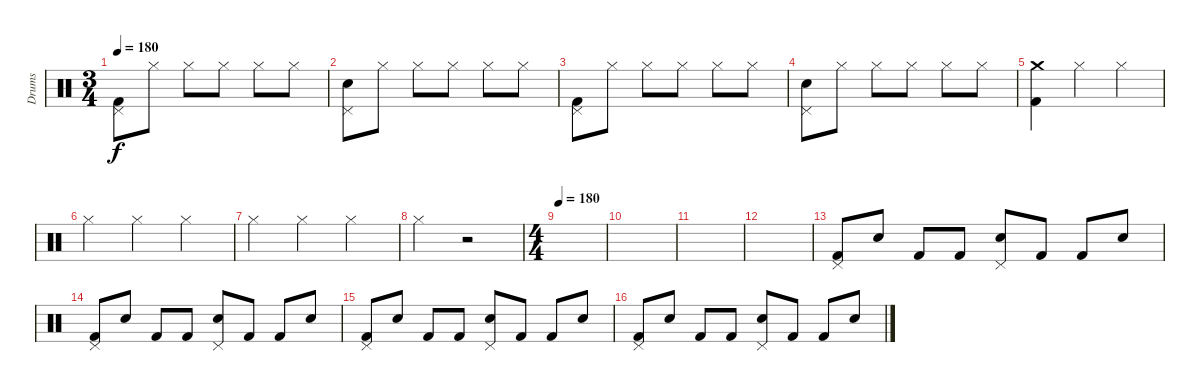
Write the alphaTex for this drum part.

\track ("Drums" "Drums") {instrument percussion}
\staff {score}
\articulation defaults
\ts (3 4)
\tempo 180
\clef neutral
\ks c
("Pedal Hi-Hat (hit)" "Kick (hit) 2").8{dy f} "Hi-Hat (closed)".8 "Hi-Hat (closed)".8 "Hi-Hat (closed)".8 "Hi-Hat (closed)".8 "Hi-Hat (closed)".8 |
("Electric Snare (hit)" "Pedal Hi-Hat (hit)").8 "Hi-Hat (closed)".8 "Hi-Hat (closed)".8 "Hi-Hat (closed)".8 "Hi-Hat (closed)".8 "Hi-Hat (closed)".8 |
("Pedal Hi-Hat (hit)" "Kick (hit) 2").8 "Hi-Hat (closed)".8 "Hi-Hat (closed)".8 "Hi-Hat (closed)".8 "Hi-Hat (closed)".8 "Hi-Hat (closed)".8 |
("Electric Snare (hit)" "Pedal Hi-Hat (hit)").8 "Hi-Hat (closed)".8 "Hi-Hat (closed)".8 "Hi-Hat (closed)".8 "Hi-Hat (closed)".8 "Hi-Hat (closed)".8 |
("Crash medium (hit)" "Kick (hit) 2").4 "Hi-Hat (closed)".4 "Hi-Hat (closed)".4 |
"Hi-Hat (closed)".4 "Hi-Hat (closed)".4 "Hi-Hat (closed)".4 |
"Hi-Hat (closed)".4 "Hi-Hat (closed)".4 "Hi-Hat (closed)".4 |
"Hi-Hat (closed)".4 r.2 |
\ts (4 4)
\tempo 180
|
|
|
|
("Pedal Hi-Hat (hit)" "Kick (hit) 2").8 "Electric Snare (hit)".8 "Kick (hit) 2".8 "Kick (hit) 2".8 ("Electric Snare (hit)" "Pedal Hi-Hat (hit)").8 "Kick (hit) 2".8 "Kick (hit) 2".8 "Electric Snare (hit)".8 |
("Pedal Hi-Hat (hit)" "Kick (hit) 2").8 "Electric Snare (hit)".8 "Kick (hit) 2".8 "Kick (hit) 2".8 ("Electric Snare (hit)" "Pedal Hi-Hat (hit)").8 "Kick (hit) 2".8 "Kick (hit) 2".8 "Electric Snare (hit)".8 |
("Pedal Hi-Hat (hit)" "Kick (hit) 2").8 "Electric Snare (hit)".8 "Kick (hit) 2".8 "Kick (hit) 2".8 ("Electric Snare (hit)" "Pedal Hi-Hat (hit)").8 "Kick (hit) 2".8 "Kick (hit) 2".8 "Electric Snare (hit)".8 |
("Pedal Hi-Hat (hit)" "Kick (hit) 2").8 "Electric Snare (hit)".8 "Kick (hit) 2".8 "Kick (hit) 2".8 ("Electric Snare (hit)" "Pedal Hi-Hat (hit)").8 "Kick (hit) 2".8 "Kick (hit) 2".8 "Electric Snare (hit)".8
